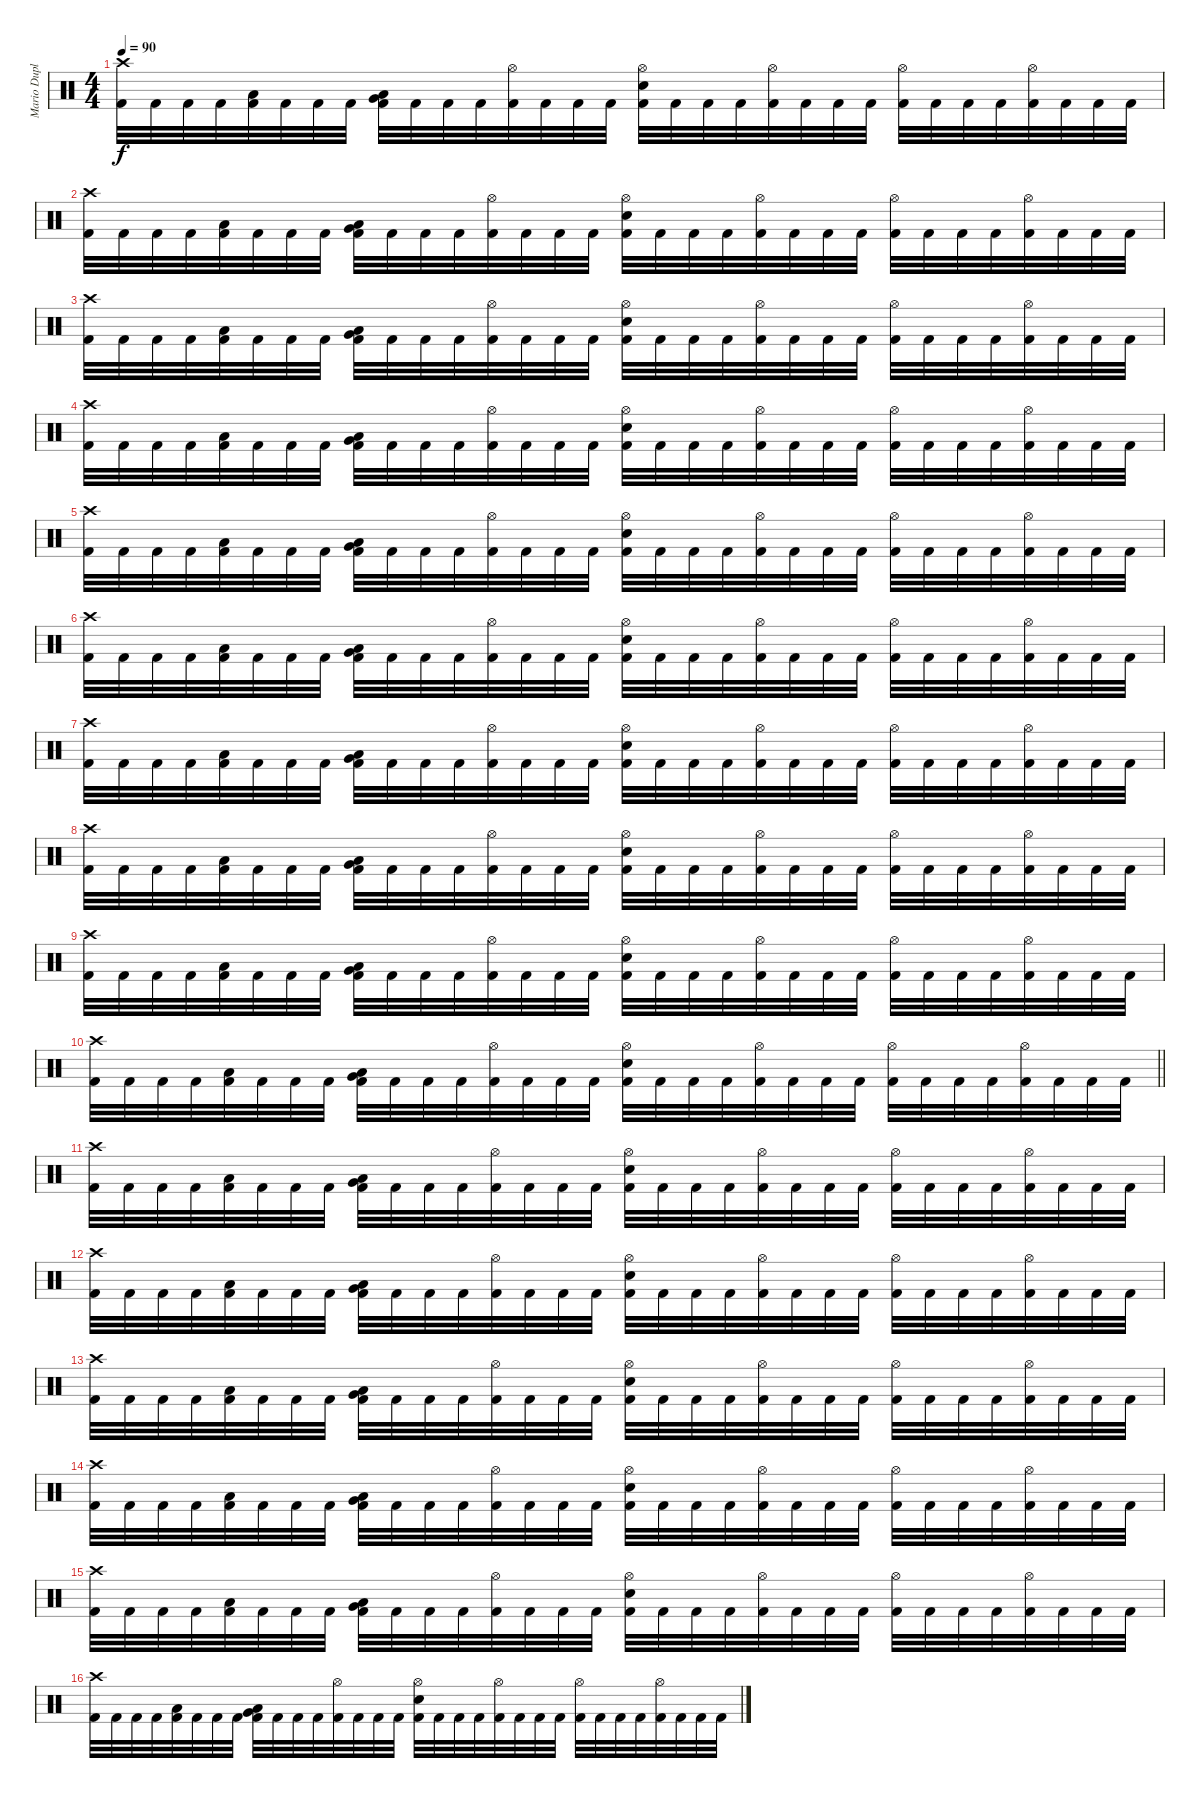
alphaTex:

\track ("Mario Duplantier" "Mario Dupl") {instrument percussion}
\staff {score}
\articulation defaults
\ts (4 4)
\tempo 90
\clef neutral
\ks c
("Crash high (hit)" "Kick (hit) 2").32{dy f} "Kick (hit) 2".32 "Kick (hit) 2".32 "Kick (hit) 2".32 ("Low Tom (hit)" "Kick (hit) 2").32 "Kick (hit) 2".32 "Kick (hit) 2".32 "Kick (hit) 2".32 ("Very Low Tom (hit)" "Low Floor Tom (hit)" "Kick (hit) 2").32 "Kick (hit) 2".32 "Kick (hit) 2".32 "Kick (hit) 2".32 ("Hi-Hat (open)" "Kick (hit) 2").32 "Kick (hit) 2".32 "Kick (hit) 2".32 "Kick (hit) 2".32 ("Hi-Hat (open)" "Electric Snare (hit)" "Kick (hit) 2").32 "Kick (hit) 2".32 "Kick (hit) 2".32 "Kick (hit) 2".32 ("Hi-Hat (open)" "Kick (hit) 2").32 "Kick (hit) 2".32 "Kick (hit) 2".32 "Kick (hit) 2".32 ("Hi-Hat (open)" "Kick (hit) 2").32 "Kick (hit) 2".32 "Kick (hit) 2".32 "Kick (hit) 2".32 ("Hi-Hat (open)" "Kick (hit) 2").32 "Kick (hit) 2".32 "Kick (hit) 2".32 "Kick (hit) 2".32 |
("Crash high (hit)" "Kick (hit) 2").32 "Kick (hit) 2".32 "Kick (hit) 2".32 "Kick (hit) 2".32 ("Low Tom (hit)" "Kick (hit) 2").32 "Kick (hit) 2".32 "Kick (hit) 2".32 "Kick (hit) 2".32 ("Very Low Tom (hit)" "Low Floor Tom (hit)" "Kick (hit) 2").32 "Kick (hit) 2".32 "Kick (hit) 2".32 "Kick (hit) 2".32 ("Hi-Hat (open)" "Kick (hit) 2").32 "Kick (hit) 2".32 "Kick (hit) 2".32 "Kick (hit) 2".32 ("Hi-Hat (open)" "Electric Snare (hit)" "Kick (hit) 2").32 "Kick (hit) 2".32 "Kick (hit) 2".32 "Kick (hit) 2".32 ("Hi-Hat (open)" "Kick (hit) 2").32 "Kick (hit) 2".32 "Kick (hit) 2".32 "Kick (hit) 2".32 ("Hi-Hat (open)" "Kick (hit) 2").32 "Kick (hit) 2".32 "Kick (hit) 2".32 "Kick (hit) 2".32 ("Hi-Hat (open)" "Kick (hit) 2").32 "Kick (hit) 2".32 "Kick (hit) 2".32 "Kick (hit) 2".32 |
("Crash high (hit)" "Kick (hit) 2").32 "Kick (hit) 2".32 "Kick (hit) 2".32 "Kick (hit) 2".32 ("Low Tom (hit)" "Kick (hit) 2").32 "Kick (hit) 2".32 "Kick (hit) 2".32 "Kick (hit) 2".32 ("Very Low Tom (hit)" "Low Floor Tom (hit)" "Kick (hit) 2").32 "Kick (hit) 2".32 "Kick (hit) 2".32 "Kick (hit) 2".32 ("Hi-Hat (open)" "Kick (hit) 2").32 "Kick (hit) 2".32 "Kick (hit) 2".32 "Kick (hit) 2".32 ("Hi-Hat (open)" "Electric Snare (hit)" "Kick (hit) 2").32 "Kick (hit) 2".32 "Kick (hit) 2".32 "Kick (hit) 2".32 ("Hi-Hat (open)" "Kick (hit) 2").32 "Kick (hit) 2".32 "Kick (hit) 2".32 "Kick (hit) 2".32 ("Hi-Hat (open)" "Kick (hit) 2").32 "Kick (hit) 2".32 "Kick (hit) 2".32 "Kick (hit) 2".32 ("Hi-Hat (open)" "Kick (hit) 2").32 "Kick (hit) 2".32 "Kick (hit) 2".32 "Kick (hit) 2".32 |
("Crash high (hit)" "Kick (hit) 2").32 "Kick (hit) 2".32 "Kick (hit) 2".32 "Kick (hit) 2".32 ("Low Tom (hit)" "Kick (hit) 2").32 "Kick (hit) 2".32 "Kick (hit) 2".32 "Kick (hit) 2".32 ("Very Low Tom (hit)" "Low Floor Tom (hit)" "Kick (hit) 2").32 "Kick (hit) 2".32 "Kick (hit) 2".32 "Kick (hit) 2".32 ("Hi-Hat (open)" "Kick (hit) 2").32 "Kick (hit) 2".32 "Kick (hit) 2".32 "Kick (hit) 2".32 ("Hi-Hat (open)" "Electric Snare (hit)" "Kick (hit) 2").32 "Kick (hit) 2".32 "Kick (hit) 2".32 "Kick (hit) 2".32 ("Hi-Hat (open)" "Kick (hit) 2").32 "Kick (hit) 2".32 "Kick (hit) 2".32 "Kick (hit) 2".32 ("Hi-Hat (open)" "Kick (hit) 2").32 "Kick (hit) 2".32 "Kick (hit) 2".32 "Kick (hit) 2".32 ("Hi-Hat (open)" "Kick (hit) 2").32 "Kick (hit) 2".32 "Kick (hit) 2".32 "Kick (hit) 2".32 |
("Crash high (hit)" "Kick (hit) 2").32 "Kick (hit) 2".32 "Kick (hit) 2".32 "Kick (hit) 2".32 ("Low Tom (hit)" "Kick (hit) 2").32 "Kick (hit) 2".32 "Kick (hit) 2".32 "Kick (hit) 2".32 ("Very Low Tom (hit)" "Low Floor Tom (hit)" "Kick (hit) 2").32 "Kick (hit) 2".32 "Kick (hit) 2".32 "Kick (hit) 2".32 ("Hi-Hat (open)" "Kick (hit) 2").32 "Kick (hit) 2".32 "Kick (hit) 2".32 "Kick (hit) 2".32 ("Hi-Hat (open)" "Electric Snare (hit)" "Kick (hit) 2").32 "Kick (hit) 2".32 "Kick (hit) 2".32 "Kick (hit) 2".32 ("Hi-Hat (open)" "Kick (hit) 2").32 "Kick (hit) 2".32 "Kick (hit) 2".32 "Kick (hit) 2".32 ("Hi-Hat (open)" "Kick (hit) 2").32 "Kick (hit) 2".32 "Kick (hit) 2".32 "Kick (hit) 2".32 ("Hi-Hat (open)" "Kick (hit) 2").32 "Kick (hit) 2".32 "Kick (hit) 2".32 "Kick (hit) 2".32 |
("Crash high (hit)" "Kick (hit) 2").32 "Kick (hit) 2".32 "Kick (hit) 2".32 "Kick (hit) 2".32 ("Low Tom (hit)" "Kick (hit) 2").32 "Kick (hit) 2".32 "Kick (hit) 2".32 "Kick (hit) 2".32 ("Very Low Tom (hit)" "Low Floor Tom (hit)" "Kick (hit) 2").32 "Kick (hit) 2".32 "Kick (hit) 2".32 "Kick (hit) 2".32 ("Hi-Hat (open)" "Kick (hit) 2").32 "Kick (hit) 2".32 "Kick (hit) 2".32 "Kick (hit) 2".32 ("Hi-Hat (open)" "Electric Snare (hit)" "Kick (hit) 2").32 "Kick (hit) 2".32 "Kick (hit) 2".32 "Kick (hit) 2".32 ("Hi-Hat (open)" "Kick (hit) 2").32 "Kick (hit) 2".32 "Kick (hit) 2".32 "Kick (hit) 2".32 ("Hi-Hat (open)" "Kick (hit) 2").32 "Kick (hit) 2".32 "Kick (hit) 2".32 "Kick (hit) 2".32 ("Hi-Hat (open)" "Kick (hit) 2").32 "Kick (hit) 2".32 "Kick (hit) 2".32 "Kick (hit) 2".32 |
("Crash high (hit)" "Kick (hit) 2").32 "Kick (hit) 2".32 "Kick (hit) 2".32 "Kick (hit) 2".32 ("Low Tom (hit)" "Kick (hit) 2").32 "Kick (hit) 2".32 "Kick (hit) 2".32 "Kick (hit) 2".32 ("Very Low Tom (hit)" "Low Floor Tom (hit)" "Kick (hit) 2").32 "Kick (hit) 2".32 "Kick (hit) 2".32 "Kick (hit) 2".32 ("Hi-Hat (open)" "Kick (hit) 2").32 "Kick (hit) 2".32 "Kick (hit) 2".32 "Kick (hit) 2".32 ("Hi-Hat (open)" "Electric Snare (hit)" "Kick (hit) 2").32 "Kick (hit) 2".32 "Kick (hit) 2".32 "Kick (hit) 2".32 ("Hi-Hat (open)" "Kick (hit) 2").32 "Kick (hit) 2".32 "Kick (hit) 2".32 "Kick (hit) 2".32 ("Hi-Hat (open)" "Kick (hit) 2").32 "Kick (hit) 2".32 "Kick (hit) 2".32 "Kick (hit) 2".32 ("Hi-Hat (open)" "Kick (hit) 2").32 "Kick (hit) 2".32 "Kick (hit) 2".32 "Kick (hit) 2".32 |
("Crash high (hit)" "Kick (hit) 2").32 "Kick (hit) 2".32 "Kick (hit) 2".32 "Kick (hit) 2".32 ("Low Tom (hit)" "Kick (hit) 2").32 "Kick (hit) 2".32 "Kick (hit) 2".32 "Kick (hit) 2".32 ("Very Low Tom (hit)" "Low Floor Tom (hit)" "Kick (hit) 2").32 "Kick (hit) 2".32 "Kick (hit) 2".32 "Kick (hit) 2".32 ("Hi-Hat (open)" "Kick (hit) 2").32 "Kick (hit) 2".32 "Kick (hit) 2".32 "Kick (hit) 2".32 ("Hi-Hat (open)" "Electric Snare (hit)" "Kick (hit) 2").32 "Kick (hit) 2".32 "Kick (hit) 2".32 "Kick (hit) 2".32 ("Hi-Hat (open)" "Kick (hit) 2").32 "Kick (hit) 2".32 "Kick (hit) 2".32 "Kick (hit) 2".32 ("Hi-Hat (open)" "Kick (hit) 2").32 "Kick (hit) 2".32 "Kick (hit) 2".32 "Kick (hit) 2".32 ("Hi-Hat (open)" "Kick (hit) 2").32 "Kick (hit) 2".32 "Kick (hit) 2".32 "Kick (hit) 2".32 |
("Crash high (hit)" "Kick (hit) 2").32 "Kick (hit) 2".32 "Kick (hit) 2".32 "Kick (hit) 2".32 ("Low Tom (hit)" "Kick (hit) 2").32 "Kick (hit) 2".32 "Kick (hit) 2".32 "Kick (hit) 2".32 ("Very Low Tom (hit)" "Low Floor Tom (hit)" "Kick (hit) 2").32 "Kick (hit) 2".32 "Kick (hit) 2".32 "Kick (hit) 2".32 ("Hi-Hat (open)" "Kick (hit) 2").32 "Kick (hit) 2".32 "Kick (hit) 2".32 "Kick (hit) 2".32 ("Hi-Hat (open)" "Electric Snare (hit)" "Kick (hit) 2").32 "Kick (hit) 2".32 "Kick (hit) 2".32 "Kick (hit) 2".32 ("Hi-Hat (open)" "Kick (hit) 2").32 "Kick (hit) 2".32 "Kick (hit) 2".32 "Kick (hit) 2".32 ("Hi-Hat (open)" "Kick (hit) 2").32 "Kick (hit) 2".32 "Kick (hit) 2".32 "Kick (hit) 2".32 ("Hi-Hat (open)" "Kick (hit) 2").32 "Kick (hit) 2".32 "Kick (hit) 2".32 "Kick (hit) 2".32 |
\barLineRight lightlight
("Crash high (hit)" "Kick (hit) 2").32 "Kick (hit) 2".32 "Kick (hit) 2".32 "Kick (hit) 2".32 ("Low Tom (hit)" "Kick (hit) 2").32 "Kick (hit) 2".32 "Kick (hit) 2".32 "Kick (hit) 2".32 ("Very Low Tom (hit)" "Low Floor Tom (hit)" "Kick (hit) 2").32 "Kick (hit) 2".32 "Kick (hit) 2".32 "Kick (hit) 2".32 ("Hi-Hat (open)" "Kick (hit) 2").32 "Kick (hit) 2".32 "Kick (hit) 2".32 "Kick (hit) 2".32 ("Hi-Hat (open)" "Electric Snare (hit)" "Kick (hit) 2").32 "Kick (hit) 2".32 "Kick (hit) 2".32 "Kick (hit) 2".32 ("Hi-Hat (open)" "Kick (hit) 2").32 "Kick (hit) 2".32 "Kick (hit) 2".32 "Kick (hit) 2".32 ("Hi-Hat (open)" "Kick (hit) 2").32 "Kick (hit) 2".32 "Kick (hit) 2".32 "Kick (hit) 2".32 ("Hi-Hat (open)" "Kick (hit) 2").32 "Kick (hit) 2".32 "Kick (hit) 2".32 "Kick (hit) 2".32 |
("Crash high (hit)" "Kick (hit) 2").32 "Kick (hit) 2".32 "Kick (hit) 2".32 "Kick (hit) 2".32 ("Low Tom (hit)" "Kick (hit) 2").32 "Kick (hit) 2".32 "Kick (hit) 2".32 "Kick (hit) 2".32 ("Very Low Tom (hit)" "Low Floor Tom (hit)" "Kick (hit) 2").32 "Kick (hit) 2".32 "Kick (hit) 2".32 "Kick (hit) 2".32 ("Hi-Hat (open)" "Kick (hit) 2").32 "Kick (hit) 2".32 "Kick (hit) 2".32 "Kick (hit) 2".32 ("Hi-Hat (open)" "Electric Snare (hit)" "Kick (hit) 2").32 "Kick (hit) 2".32 "Kick (hit) 2".32 "Kick (hit) 2".32 ("Hi-Hat (open)" "Kick (hit) 2").32 "Kick (hit) 2".32 "Kick (hit) 2".32 "Kick (hit) 2".32 ("Hi-Hat (open)" "Kick (hit) 2").32 "Kick (hit) 2".32 "Kick (hit) 2".32 "Kick (hit) 2".32 ("Hi-Hat (open)" "Kick (hit) 2").32 "Kick (hit) 2".32 "Kick (hit) 2".32 "Kick (hit) 2".32 |
("Crash high (hit)" "Kick (hit) 2").32 "Kick (hit) 2".32 "Kick (hit) 2".32 "Kick (hit) 2".32 ("Low Tom (hit)" "Kick (hit) 2").32 "Kick (hit) 2".32 "Kick (hit) 2".32 "Kick (hit) 2".32 ("Very Low Tom (hit)" "Low Floor Tom (hit)" "Kick (hit) 2").32 "Kick (hit) 2".32 "Kick (hit) 2".32 "Kick (hit) 2".32 ("Hi-Hat (open)" "Kick (hit) 2").32 "Kick (hit) 2".32 "Kick (hit) 2".32 "Kick (hit) 2".32 ("Hi-Hat (open)" "Electric Snare (hit)" "Kick (hit) 2").32 "Kick (hit) 2".32 "Kick (hit) 2".32 "Kick (hit) 2".32 ("Hi-Hat (open)" "Kick (hit) 2").32 "Kick (hit) 2".32 "Kick (hit) 2".32 "Kick (hit) 2".32 ("Hi-Hat (open)" "Kick (hit) 2").32 "Kick (hit) 2".32 "Kick (hit) 2".32 "Kick (hit) 2".32 ("Hi-Hat (open)" "Kick (hit) 2").32 "Kick (hit) 2".32 "Kick (hit) 2".32 "Kick (hit) 2".32 |
("Crash high (hit)" "Kick (hit) 2").32 "Kick (hit) 2".32 "Kick (hit) 2".32 "Kick (hit) 2".32 ("Low Tom (hit)" "Kick (hit) 2").32 "Kick (hit) 2".32 "Kick (hit) 2".32 "Kick (hit) 2".32 ("Very Low Tom (hit)" "Low Floor Tom (hit)" "Kick (hit) 2").32 "Kick (hit) 2".32 "Kick (hit) 2".32 "Kick (hit) 2".32 ("Hi-Hat (open)" "Kick (hit) 2").32 "Kick (hit) 2".32 "Kick (hit) 2".32 "Kick (hit) 2".32 ("Hi-Hat (open)" "Electric Snare (hit)" "Kick (hit) 2").32 "Kick (hit) 2".32 "Kick (hit) 2".32 "Kick (hit) 2".32 ("Hi-Hat (open)" "Kick (hit) 2").32 "Kick (hit) 2".32 "Kick (hit) 2".32 "Kick (hit) 2".32 ("Hi-Hat (open)" "Kick (hit) 2").32 "Kick (hit) 2".32 "Kick (hit) 2".32 "Kick (hit) 2".32 ("Hi-Hat (open)" "Kick (hit) 2").32 "Kick (hit) 2".32 "Kick (hit) 2".32 "Kick (hit) 2".32 |
("Crash high (hit)" "Kick (hit) 2").32 "Kick (hit) 2".32 "Kick (hit) 2".32 "Kick (hit) 2".32 ("Low Tom (hit)" "Kick (hit) 2").32 "Kick (hit) 2".32 "Kick (hit) 2".32 "Kick (hit) 2".32 ("Very Low Tom (hit)" "Low Floor Tom (hit)" "Kick (hit) 2").32 "Kick (hit) 2".32 "Kick (hit) 2".32 "Kick (hit) 2".32 ("Hi-Hat (open)" "Kick (hit) 2").32 "Kick (hit) 2".32 "Kick (hit) 2".32 "Kick (hit) 2".32 ("Hi-Hat (open)" "Electric Snare (hit)" "Kick (hit) 2").32 "Kick (hit) 2".32 "Kick (hit) 2".32 "Kick (hit) 2".32 ("Hi-Hat (open)" "Kick (hit) 2").32 "Kick (hit) 2".32 "Kick (hit) 2".32 "Kick (hit) 2".32 ("Hi-Hat (open)" "Kick (hit) 2").32 "Kick (hit) 2".32 "Kick (hit) 2".32 "Kick (hit) 2".32 ("Hi-Hat (open)" "Kick (hit) 2").32 "Kick (hit) 2".32 "Kick (hit) 2".32 "Kick (hit) 2".32 |
("Crash high (hit)" "Kick (hit) 2").32 "Kick (hit) 2".32 "Kick (hit) 2".32 "Kick (hit) 2".32 ("Low Tom (hit)" "Kick (hit) 2").32 "Kick (hit) 2".32 "Kick (hit) 2".32 "Kick (hit) 2".32 ("Very Low Tom (hit)" "Low Floor Tom (hit)" "Kick (hit) 2").32 "Kick (hit) 2".32 "Kick (hit) 2".32 "Kick (hit) 2".32 ("Hi-Hat (open)" "Kick (hit) 2").32 "Kick (hit) 2".32 "Kick (hit) 2".32 "Kick (hit) 2".32 ("Hi-Hat (open)" "Electric Snare (hit)" "Kick (hit) 2").32 "Kick (hit) 2".32 "Kick (hit) 2".32 "Kick (hit) 2".32 ("Hi-Hat (open)" "Kick (hit) 2").32 "Kick (hit) 2".32 "Kick (hit) 2".32 "Kick (hit) 2".32 ("Hi-Hat (open)" "Kick (hit) 2").32 "Kick (hit) 2".32 "Kick (hit) 2".32 "Kick (hit) 2".32 ("Hi-Hat (open)" "Kick (hit) 2").32 "Kick (hit) 2".32 "Kick (hit) 2".32 "Kick (hit) 2".32 |
("Crash high (hit)" "Kick (hit) 2").32 "Kick (hit) 2".32 "Kick (hit) 2".32 "Kick (hit) 2".32 ("Low Tom (hit)" "Kick (hit) 2").32 "Kick (hit) 2".32 "Kick (hit) 2".32 "Kick (hit) 2".32 ("Very Low Tom (hit)" "Low Floor Tom (hit)" "Kick (hit) 2").32 "Kick (hit) 2".32 "Kick (hit) 2".32 "Kick (hit) 2".32 ("Hi-Hat (open)" "Kick (hit) 2").32 "Kick (hit) 2".32 "Kick (hit) 2".32 "Kick (hit) 2".32 ("Hi-Hat (open)" "Electric Snare (hit)" "Kick (hit) 2").32 "Kick (hit) 2".32 "Kick (hit) 2".32 "Kick (hit) 2".32 ("Hi-Hat (open)" "Kick (hit) 2").32 "Kick (hit) 2".32 "Kick (hit) 2".32 "Kick (hit) 2".32 ("Hi-Hat (open)" "Kick (hit) 2").32 "Kick (hit) 2".32 "Kick (hit) 2".32 "Kick (hit) 2".32 ("Hi-Hat (open)" "Kick (hit) 2").32 "Kick (hit) 2".32 "Kick (hit) 2".32 "Kick (hit) 2".32
